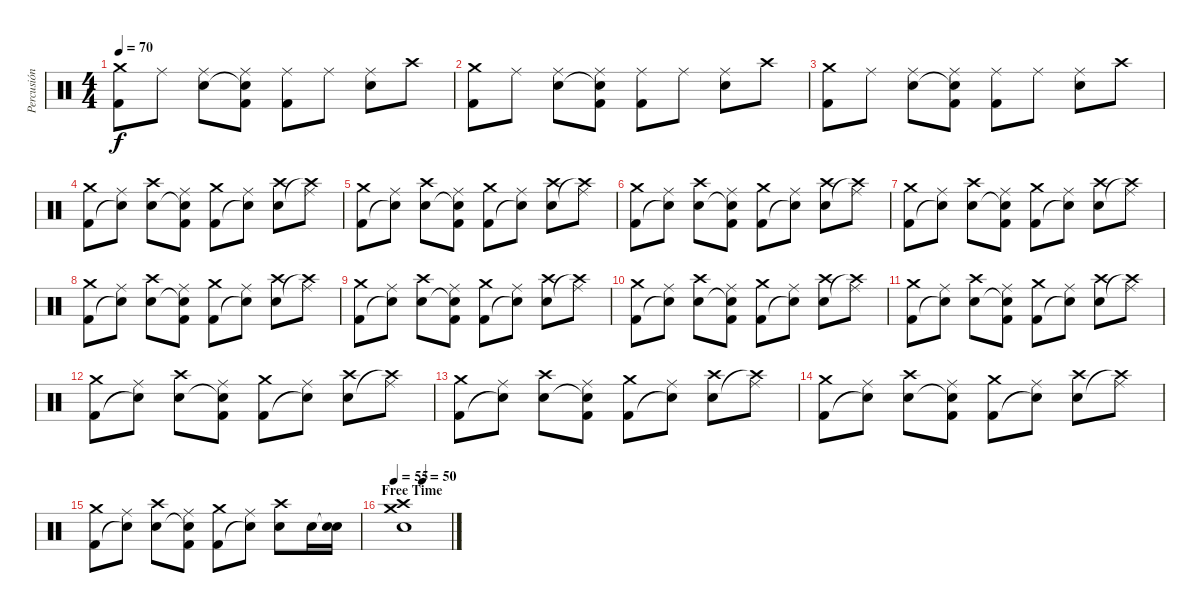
\track ("Percusión" "Percusión") {instrument percussion}
\staff {score}
\articulation defaults
\ts (4 4)
\tempo 70
\clef neutral
\ks c
("Crash medium (hit)" "Kick (hit) 2").8{dy f} "Ride (middle)".8 ("Ride (middle)" "Snare (hit) 2").8 ("Ride (middle)" "Snare (hit)"{t} "Kick (hit) 2").8 ("Ride (middle)" "Kick (hit) 2").8 "Ride (middle)".8 ("Ride (middle)" "Snare (hit) 2").8 "Crash high (hit)".8 |
("Crash medium (hit)" "Kick (hit) 2").8 "Ride (middle)".8 ("Ride (middle)" "Snare (hit) 2").8 ("Ride (middle)" "Snare (hit)"{t} "Kick (hit) 2").8 ("Ride (middle)" "Kick (hit) 2").8 "Ride (middle)".8 ("Ride (middle)" "Snare (hit) 2").8 "Crash high (hit)".8 |
("Crash medium (hit)" "Kick (hit) 2").8 "Ride (middle)".8 ("Ride (middle)" "Snare (hit) 2").8 ("Ride (middle)" "Snare (hit)"{t} "Kick (hit) 2").8 ("Ride (middle)" "Kick (hit) 2").8 "Ride (middle)".8 ("Ride (middle)" "Snare (hit) 2").8 "Crash high (hit)".8 |
("Crash medium (hit)" "Kick (hit) 2").8 ("Ride (middle)" "Snare (hit)"{t}).8 ("Crash high (hit)" "Snare (hit) 2").8 ("Ride (middle)" "Snare (hit)"{t} "Kick (hit) 2").8 ("Crash medium (hit)" "Kick (hit) 2").8 ("Ride (middle)" "Snare (hit)"{t}).8 ("Crash high (hit)" "Snare (hit) 2").8 ("Ride (middle)" "Crash high (hit)"{t}).8 |
("Crash medium (hit)" "Kick (hit) 2").8 ("Ride (middle)" "Snare (hit)"{t}).8 ("Crash high (hit)" "Snare (hit) 2").8 ("Ride (middle)" "Snare (hit)"{t} "Kick (hit) 2").8 ("Crash medium (hit)" "Kick (hit) 2").8 ("Ride (middle)" "Snare (hit)"{t}).8 ("Crash high (hit)" "Snare (hit) 2").8 ("Ride (middle)" "Crash high (hit)"{t}).8 |
("Crash medium (hit)" "Kick (hit) 2").8 ("Ride (middle)" "Snare (hit)"{t}).8 ("Crash high (hit)" "Snare (hit) 2").8 ("Ride (middle)" "Snare (hit)"{t} "Kick (hit) 2").8 ("Crash medium (hit)" "Kick (hit) 2").8 ("Ride (middle)" "Snare (hit)"{t}).8 ("Crash high (hit)" "Snare (hit) 2").8 ("Ride (middle)" "Crash high (hit)"{t}).8 |
("Crash medium (hit)" "Kick (hit) 2").8 ("Ride (middle)" "Snare (hit)"{t}).8 ("Crash high (hit)" "Snare (hit) 2").8 ("Ride (middle)" "Snare (hit)"{t} "Kick (hit) 2").8 ("Crash medium (hit)" "Kick (hit) 2").8 ("Ride (middle)" "Snare (hit)"{t}).8 ("Crash high (hit)" "Snare (hit) 2").8 ("Ride (middle)" "Crash high (hit)"{t}).8 |
("Crash medium (hit)" "Kick (hit) 2").8 ("Ride (middle)" "Snare (hit)"{t}).8 ("Crash high (hit)" "Snare (hit) 2").8 ("Ride (middle)" "Snare (hit)"{t} "Kick (hit) 2").8 ("Crash medium (hit)" "Kick (hit) 2").8 ("Ride (middle)" "Snare (hit)"{t}).8 ("Crash high (hit)" "Snare (hit) 2").8 ("Ride (middle)" "Crash high (hit)"{t}).8 |
("Crash medium (hit)" "Kick (hit) 2").8 ("Ride (middle)" "Snare (hit)"{t}).8 ("Crash high (hit)" "Snare (hit) 2").8 ("Ride (middle)" "Snare (hit)"{t} "Kick (hit) 2").8 ("Crash medium (hit)" "Kick (hit) 2").8 ("Ride (middle)" "Snare (hit)"{t}).8 ("Crash high (hit)" "Snare (hit) 2").8 ("Ride (middle)" "Crash high (hit)"{t}).8 |
("Crash medium (hit)" "Kick (hit) 2").8 ("Ride (middle)" "Snare (hit)"{t}).8 ("Crash high (hit)" "Snare (hit) 2").8 ("Ride (middle)" "Snare (hit)"{t} "Kick (hit) 2").8 ("Crash medium (hit)" "Kick (hit) 2").8 ("Ride (middle)" "Snare (hit)"{t}).8 ("Crash high (hit)" "Snare (hit) 2").8 ("Ride (middle)" "Crash high (hit)"{t}).8 |
("Crash medium (hit)" "Kick (hit) 2").8 ("Ride (middle)" "Snare (hit)"{t}).8 ("Crash high (hit)" "Snare (hit) 2").8 ("Ride (middle)" "Snare (hit)"{t} "Kick (hit) 2").8 ("Crash medium (hit)" "Kick (hit) 2").8 ("Ride (middle)" "Snare (hit)"{t}).8 ("Crash high (hit)" "Snare (hit) 2").8 ("Ride (middle)" "Crash high (hit)"{t}).8 |
("Crash medium (hit)" "Kick (hit) 2").8 ("Ride (middle)" "Snare (hit)"{t}).8 ("Crash high (hit)" "Snare (hit) 2").8 ("Ride (middle)" "Snare (hit)"{t} "Kick (hit) 2").8 ("Crash medium (hit)" "Kick (hit) 2").8 ("Ride (middle)" "Snare (hit)"{t}).8 ("Crash high (hit)" "Snare (hit) 2").8 ("Ride (middle)" "Crash high (hit)"{t}).8 |
("Crash medium (hit)" "Kick (hit) 2").8 ("Ride (middle)" "Snare (hit)"{t}).8 ("Crash high (hit)" "Snare (hit) 2").8 ("Ride (middle)" "Snare (hit)"{t} "Kick (hit) 2").8 ("Crash medium (hit)" "Kick (hit) 2").8 ("Ride (middle)" "Snare (hit)"{t}).8 ("Crash high (hit)" "Snare (hit) 2").8 ("Ride (middle)" "Crash high (hit)"{t}).8 |
("Crash medium (hit)" "Kick (hit) 2").8 ("Ride (middle)" "Snare (hit)"{t}).8 ("Crash high (hit)" "Snare (hit) 2").8 ("Ride (middle)" "Snare (hit)"{t} "Kick (hit) 2").8 ("Crash medium (hit)" "Kick (hit) 2").8 ("Ride (middle)" "Snare (hit)"{t}).8 ("Crash high (hit)" "Snare (hit) 2").8 ("Ride (middle)" "Crash high (hit)"{t}).8 |
("Crash medium (hit)" "Kick (hit) 2").8 ("Ride (middle)" "Snare (hit)"{t}).8 ("Crash high (hit)" "Snare (hit) 2").8 ("Ride (middle)" "Snare (hit)"{t} "Kick (hit) 2").8 ("Crash medium (hit)" "Kick (hit) 2").8 ("Ride (middle)" "Snare (hit)"{t}).8 ("Crash high (hit)" "Snare (hit) 2").8 "Snare (hit) 2".16 ("Snare (hit)"{t} "Snare (hit) 2").16 |
\section ("" "Free Time")
\tempo 55
\tempo (50 0.5)
("Crash medium (hit)" "Crash high (hit)" "Snare (hit) 2").1
